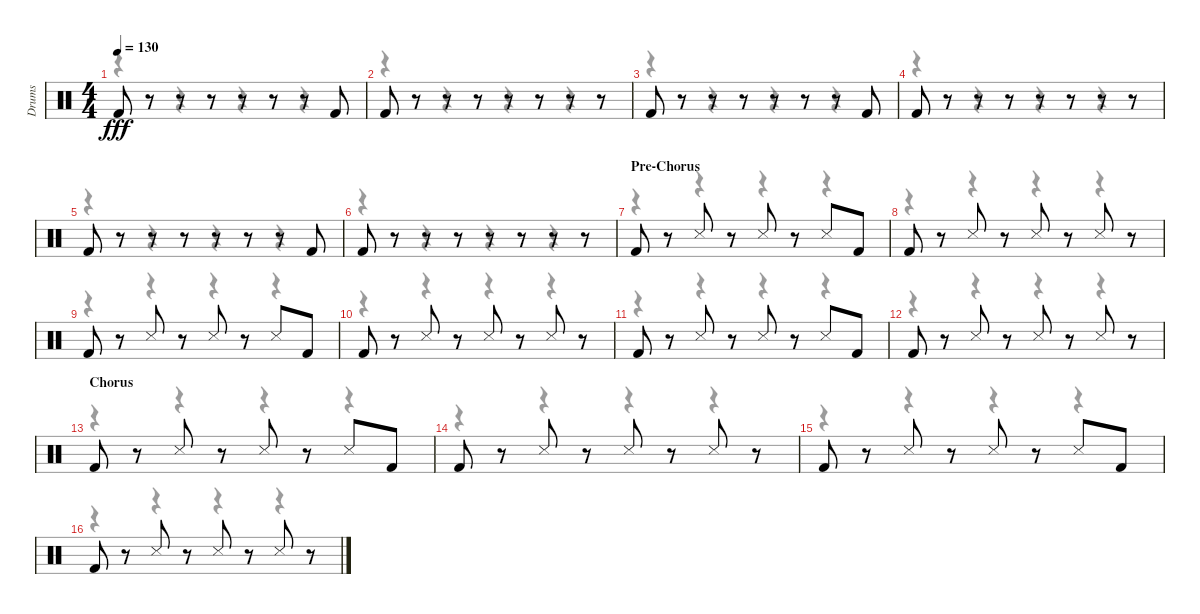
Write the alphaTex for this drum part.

\track ("Drums" "Drums") {instrument percussion}
\staff {score}
\articulation defaults
\voice
\ts (4 4)
\tempo 130
\clef neutral
\ks c "Kick (hit) 2".8{dy fff}
r.8 r.8 r.8 r.8 r.8 r.8 "Kick (hit) 2".8 |
"Kick (hit) 2".8 r.8 r.8 r.8 r.8 r.8 r.8 r.8 |
"Kick (hit) 2".8 r.8 r.8 r.8 r.8 r.8 r.8 "Kick (hit) 2".8 |
"Kick (hit) 2".8 r.8 r.8 r.8 r.8 r.8 r.8 r.8 |
"Kick (hit) 2".8 r.8 r.8 r.8 r.8 r.8 r.8 "Kick (hit) 2".8 |
"Kick (hit) 2".8 r.8 r.8 r.8 r.8 r.8 r.8 r.8 |
\section ("" "Pre-Chorus")
"Kick (hit) 2".8 r.8 "Snare (side stick) 3".8 r.8 "Snare (side stick) 3".8 r.8 "Snare (side stick) 3".8 "Kick (hit) 2".8 |
"Kick (hit) 2".8 r.8 "Snare (side stick) 3".8 r.8 "Snare (side stick) 3".8 r.8 "Snare (side stick) 3".8 r.8 |
"Kick (hit) 2".8 r.8 "Snare (side stick) 3".8 r.8 "Snare (side stick) 3".8 r.8 "Snare (side stick) 3".8 "Kick (hit) 2".8 |
"Kick (hit) 2".8 r.8 "Snare (side stick) 3".8 r.8 "Snare (side stick) 3".8 r.8 "Snare (side stick) 3".8 r.8 |
"Kick (hit) 2".8 r.8 "Snare (side stick) 3".8 r.8 "Snare (side stick) 3".8 r.8 "Snare (side stick) 3".8 "Kick (hit) 2".8 |
"Kick (hit) 2".8 r.8 "Snare (side stick) 3".8 r.8 "Snare (side stick) 3".8 r.8 "Snare (side stick) 3".8 r.8 |
\section ("" "Chorus")
"Kick (hit) 2".8 r.8 "Snare (side stick) 3".8 r.8 "Snare (side stick) 3".8 r.8 "Snare (side stick) 3".8 "Kick (hit) 2".8 |
"Kick (hit) 2".8 r.8 "Snare (side stick) 3".8 r.8 "Snare (side stick) 3".8 r.8 "Snare (side stick) 3".8 r.8 |
"Kick (hit) 2".8 r.8 "Snare (side stick) 3".8 r.8 "Snare (side stick) 3".8 r.8 "Snare (side stick) 3".8 "Kick (hit) 2".8 |
"Kick (hit) 2".8 r.8 "Snare (side stick) 3".8 r.8 "Snare (side stick) 3".8 r.8 "Snare (side stick) 3".8 r.8
\voice
\clef neutral
\ottava regular
\simile none
\ks c
r.4{dy f} r.4 r.4 r.4 |
r.4 r.4 r.4 r.4 |
r.4 r.4 r.4 r.4 |
r.4 r.4 r.4 r.4 |
r.4 r.4 r.4 r.4 |
r.4 r.4 r.4 r.4 |
r.4 r.4 r.4 r.4 |
r.4 r.4 r.4 r.4 |
r.4 r.4 r.4 r.4 |
r.4 r.4 r.4 r.4 |
r.4 r.4 r.4 r.4 |
r.4 r.4 r.4 r.4 |
r.4 r.4 r.4 r.4 |
r.4 r.4 r.4 r.4 |
r.4 r.4 r.4 r.4 |
r.4 r.4 r.4 r.4
